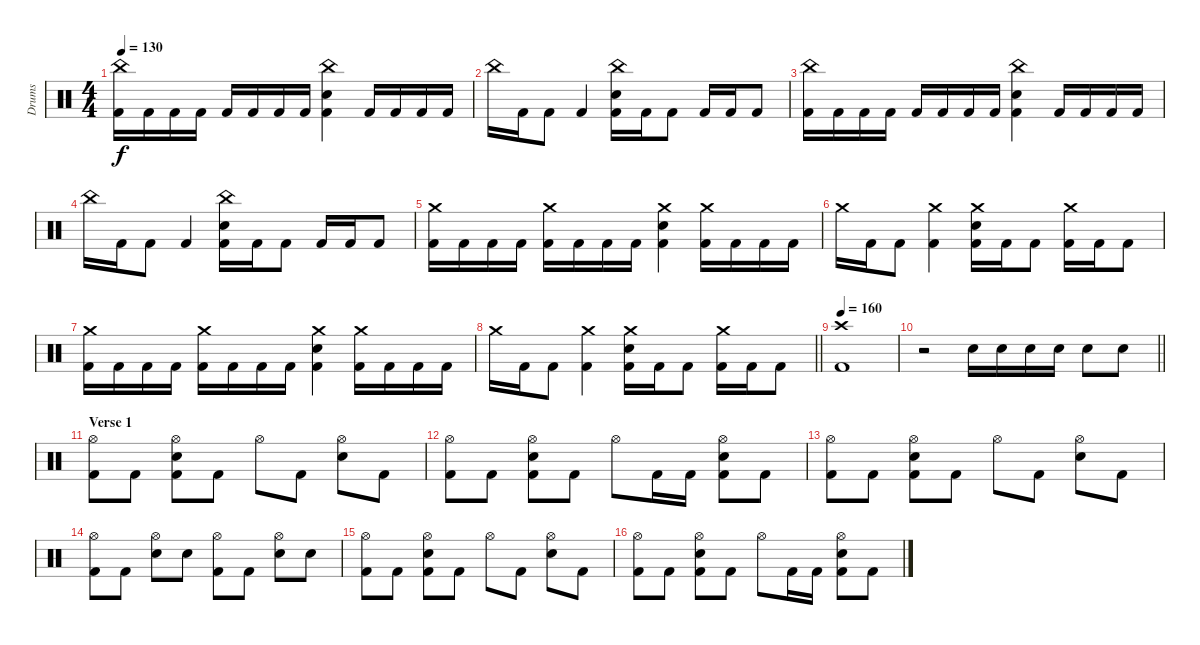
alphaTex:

\track ("Drums" "Drums") {instrument percussion}
\staff {score}
\articulation defaults
\ts (4 4)
\tempo 130
\clef neutral
\ks c
("China (hit)" "Kick (hit) 2").16{dy f} "Kick (hit) 2".16 "Kick (hit) 2".16 "Kick (hit) 2".16 "Kick (hit) 2".16 "Kick (hit) 2".16 "Kick (hit) 2".16 "Kick (hit) 2".16 ("China (hit)" "Electric Snare (hit)" "Kick (hit) 2").4 "Kick (hit) 2".16 "Kick (hit) 2".16 "Kick (hit) 2".16 "Kick (hit) 2".16 |
"China (hit)".16 "Kick (hit) 2".16 "Kick (hit) 2".8 "Kick (hit) 2".4 ("China (hit)" "Electric Snare (hit)" "Kick (hit) 2").16 "Kick (hit) 2".16 "Kick (hit) 2".8 "Kick (hit) 2".16 "Kick (hit) 2".16 "Kick (hit) 2".8 |
("China (hit)" "Kick (hit) 2").16 "Kick (hit) 2".16 "Kick (hit) 2".16 "Kick (hit) 2".16 "Kick (hit) 2".16 "Kick (hit) 2".16 "Kick (hit) 2".16 "Kick (hit) 2".16 ("China (hit)" "Electric Snare (hit)" "Kick (hit) 2").4 "Kick (hit) 2".16 "Kick (hit) 2".16 "Kick (hit) 2".16 "Kick (hit) 2".16 |
"China (hit)".16 "Kick (hit) 2".16 "Kick (hit) 2".8 "Kick (hit) 2".4 ("China (hit)" "Electric Snare (hit)" "Kick (hit) 2").16 "Kick (hit) 2".16 "Kick (hit) 2".8 "Kick (hit) 2".16 "Kick (hit) 2".16 "Kick (hit) 2".8 |
("Crash medium (hit)" "Kick (hit) 2").16 "Kick (hit) 2".16 "Kick (hit) 2".16 "Kick (hit) 2".16 ("Crash medium (hit)" "Kick (hit) 2").16 "Kick (hit) 2".16 "Kick (hit) 2".16 "Kick (hit) 2".16 ("Crash medium (hit)" "Electric Snare (hit)" "Kick (hit) 2").4 ("Crash medium (hit)" "Kick (hit) 2").16 "Kick (hit) 2".16 "Kick (hit) 2".16 "Kick (hit) 2".16 |
"Crash medium (hit)".16 "Kick (hit) 2".16 "Kick (hit) 2".8 ("Crash medium (hit)" "Kick (hit) 2").4 ("Crash medium (hit)" "Electric Snare (hit)" "Kick (hit) 2").16 "Kick (hit) 2".16 "Kick (hit) 2".8 ("Crash medium (hit)" "Kick (hit) 2").16 "Kick (hit) 2".16 "Kick (hit) 2".8 |
("Crash medium (hit)" "Kick (hit) 2").16 "Kick (hit) 2".16 "Kick (hit) 2".16 "Kick (hit) 2".16 ("Crash medium (hit)" "Kick (hit) 2").16 "Kick (hit) 2".16 "Kick (hit) 2".16 "Kick (hit) 2".16 ("Crash medium (hit)" "Electric Snare (hit)" "Kick (hit) 2").4 ("Crash medium (hit)" "Kick (hit) 2").16 "Kick (hit) 2".16 "Kick (hit) 2".16 "Kick (hit) 2".16 |
\barLineRight lightlight "Crash medium (hit)".16 "Kick (hit) 2".16 "Kick (hit) 2".8
("Crash medium (hit)" "Kick (hit) 2").4 ("Crash medium (hit)" "Electric Snare (hit)" "Kick (hit) 2").16 "Kick (hit) 2".16 "Kick (hit) 2".8 ("Crash medium (hit)" "Kick (hit) 2").16 "Kick (hit) 2".16 "Kick (hit) 2".8 |
\section ("" "")
\tempo 160
("Crash high (hit)" "Kick (hit) 2").1 |
\barLineRight lightlight
r.2 "Electric Snare (hit)".16 "Electric Snare (hit)".16 "Electric Snare (hit)".16 "Electric Snare (hit)".16 "Electric Snare (hit)".8 "Electric Snare (hit)".8 |
\section ("" "Verse 1")
("Hi-Hat (open)" "Kick (hit) 2").8 "Kick (hit) 2".8 ("Hi-Hat (open)" "Electric Snare (hit)" "Kick (hit) 2").8 "Kick (hit) 2".8 "Hi-Hat (open)".8 "Kick (hit) 2".8 ("Hi-Hat (open)" "Electric Snare (hit)").8 "Kick (hit) 2".8 |
("Hi-Hat (open)" "Kick (hit) 2").8 "Kick (hit) 2".8 ("Hi-Hat (open)" "Electric Snare (hit)" "Kick (hit) 2").8 "Kick (hit) 2".8 "Hi-Hat (open)".8 "Kick (hit) 2".16 "Kick (hit) 2".16 ("Hi-Hat (open)" "Electric Snare (hit)" "Kick (hit) 2").8 "Kick (hit) 2".8 |
("Hi-Hat (open)" "Kick (hit) 2").8 "Kick (hit) 2".8 ("Hi-Hat (open)" "Electric Snare (hit)" "Kick (hit) 2").8 "Kick (hit) 2".8 "Hi-Hat (open)".8 "Kick (hit) 2".8 ("Hi-Hat (open)" "Electric Snare (hit)").8 "Kick (hit) 2".8 |
("Hi-Hat (open)" "Kick (hit) 2").8 "Kick (hit) 2".8 ("Hi-Hat (open)" "Electric Snare (hit)").8 "Electric Snare (hit)".8 ("Hi-Hat (open)" "Kick (hit) 2").8 "Kick (hit) 2".8 ("Hi-Hat (open)" "Electric Snare (hit)").8 "Electric Snare (hit)".8 |
("Hi-Hat (open)" "Kick (hit) 2").8 "Kick (hit) 2".8 ("Hi-Hat (open)" "Electric Snare (hit)" "Kick (hit) 2").8 "Kick (hit) 2".8 "Hi-Hat (open)".8 "Kick (hit) 2".8 ("Hi-Hat (open)" "Electric Snare (hit)").8 "Kick (hit) 2".8 |
("Hi-Hat (open)" "Kick (hit) 2").8 "Kick (hit) 2".8 ("Hi-Hat (open)" "Electric Snare (hit)" "Kick (hit) 2").8 "Kick (hit) 2".8 "Hi-Hat (open)".8 "Kick (hit) 2".16 "Kick (hit) 2".16 ("Hi-Hat (open)" "Electric Snare (hit)" "Kick (hit) 2").8 "Kick (hit) 2".8
